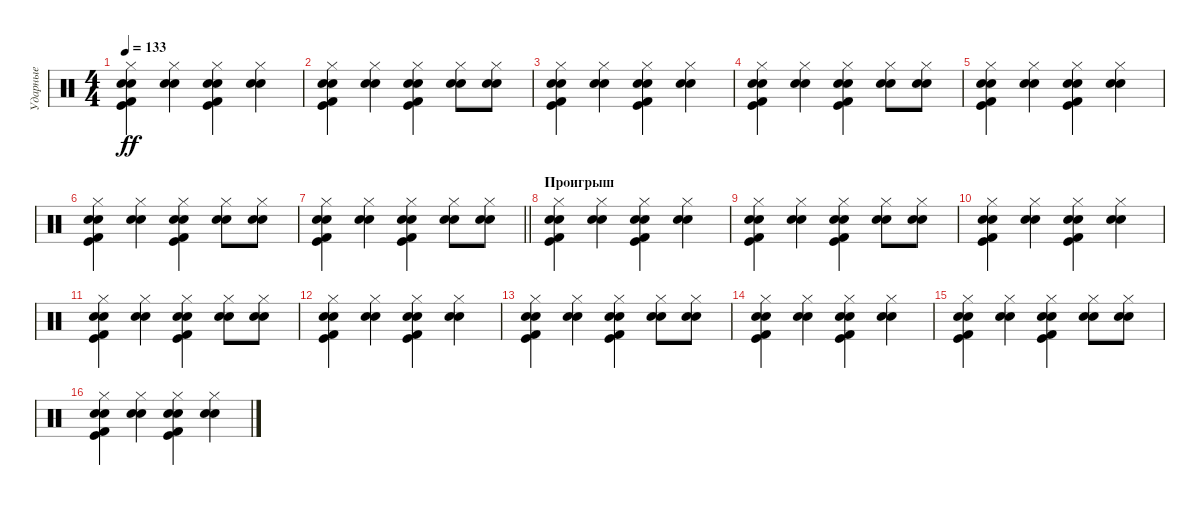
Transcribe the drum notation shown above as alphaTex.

\track ("Ударные" "Ударные") {instrument percussion}
\staff {score}
\articulation defaults
\ts (4 4)
\tempo 133
\clef neutral
\ks c
("Snare (hit) 2" "Kick (hit)" "Kick (hit) 2" "Snare (hit) 2" "Hi-Hat (closed)").4{dy ff} ("Electric Snare (hit)" "Electric Snare (hit)" "Hi-Hat (closed)").4 ("Snare (hit) 2" "Kick (hit)" "Kick (hit) 2" "Snare (hit) 2" "Hi-Hat (closed)").4 ("Electric Snare (hit)" "Electric Snare (hit)" "Hi-Hat (closed)").4 |
("Snare (hit) 2" "Kick (hit)" "Kick (hit) 2" "Snare (hit) 2" "Hi-Hat (closed)").4 ("Electric Snare (hit)" "Electric Snare (hit)" "Hi-Hat (closed)").4 ("Snare (hit) 2" "Kick (hit)" "Kick (hit) 2" "Snare (hit) 2" "Hi-Hat (closed)").4 ("Electric Snare (hit)" "Electric Snare (hit)" "Hi-Hat (closed)").8 ("Electric Snare (hit)" "Electric Snare (hit)" "Hi-Hat (closed)").8 |
("Snare (hit) 2" "Kick (hit)" "Kick (hit) 2" "Snare (hit) 2" "Hi-Hat (closed)").4 ("Electric Snare (hit)" "Electric Snare (hit)" "Hi-Hat (closed)").4 ("Snare (hit) 2" "Kick (hit)" "Kick (hit) 2" "Snare (hit) 2" "Hi-Hat (closed)").4 ("Electric Snare (hit)" "Electric Snare (hit)" "Hi-Hat (closed)").4 |
("Snare (hit) 2" "Kick (hit)" "Kick (hit) 2" "Snare (hit) 2" "Hi-Hat (closed)").4 ("Electric Snare (hit)" "Electric Snare (hit)" "Hi-Hat (closed)").4 ("Snare (hit) 2" "Kick (hit)" "Kick (hit) 2" "Snare (hit) 2" "Hi-Hat (closed)").4 ("Electric Snare (hit)" "Electric Snare (hit)" "Hi-Hat (closed)").8 ("Electric Snare (hit)" "Electric Snare (hit)" "Hi-Hat (closed)").8 |
("Snare (hit) 2" "Kick (hit)" "Kick (hit) 2" "Snare (hit) 2" "Hi-Hat (closed)").4 ("Electric Snare (hit)" "Electric Snare (hit)" "Hi-Hat (closed)").4 ("Snare (hit) 2" "Kick (hit)" "Kick (hit) 2" "Snare (hit) 2" "Hi-Hat (closed)").4 ("Electric Snare (hit)" "Electric Snare (hit)" "Hi-Hat (closed)").4 |
("Snare (hit) 2" "Kick (hit)" "Kick (hit) 2" "Snare (hit) 2" "Hi-Hat (closed)").4 ("Electric Snare (hit)" "Electric Snare (hit)" "Hi-Hat (closed)").4 ("Snare (hit) 2" "Kick (hit)" "Kick (hit) 2" "Snare (hit) 2" "Hi-Hat (closed)").4 ("Electric Snare (hit)" "Electric Snare (hit)" "Hi-Hat (closed)").8 ("Electric Snare (hit)" "Electric Snare (hit)" "Hi-Hat (closed)").8 |
\barLineRight lightlight
("Snare (hit) 2" "Kick (hit)" "Kick (hit) 2" "Snare (hit) 2" "Hi-Hat (closed)").4 ("Electric Snare (hit)" "Electric Snare (hit)" "Hi-Hat (closed)").4 ("Snare (hit) 2" "Kick (hit)" "Kick (hit) 2" "Snare (hit) 2" "Hi-Hat (closed)").4 ("Electric Snare (hit)" "Electric Snare (hit)" "Hi-Hat (closed)").8 ("Electric Snare (hit)" "Electric Snare (hit)" "Hi-Hat (closed)").8 |
\section ("" "Проигрыш")
("Snare (hit) 2" "Kick (hit)" "Kick (hit) 2" "Snare (hit) 2" "Hi-Hat (closed)").4 ("Electric Snare (hit)" "Electric Snare (hit)" "Hi-Hat (closed)").4 ("Snare (hit) 2" "Kick (hit)" "Kick (hit) 2" "Snare (hit) 2" "Hi-Hat (closed)").4 ("Electric Snare (hit)" "Electric Snare (hit)" "Hi-Hat (closed)").4 |
("Snare (hit) 2" "Kick (hit)" "Kick (hit) 2" "Snare (hit) 2" "Hi-Hat (closed)").4 ("Electric Snare (hit)" "Electric Snare (hit)" "Hi-Hat (closed)").4 ("Snare (hit) 2" "Kick (hit)" "Kick (hit) 2" "Snare (hit) 2" "Hi-Hat (closed)").4 ("Electric Snare (hit)" "Electric Snare (hit)" "Hi-Hat (closed)").8 ("Electric Snare (hit)" "Electric Snare (hit)" "Hi-Hat (closed)").8 |
("Snare (hit) 2" "Kick (hit)" "Kick (hit) 2" "Snare (hit) 2" "Hi-Hat (closed)").4 ("Electric Snare (hit)" "Electric Snare (hit)" "Hi-Hat (closed)").4 ("Snare (hit) 2" "Kick (hit)" "Kick (hit) 2" "Snare (hit) 2" "Hi-Hat (closed)").4 ("Electric Snare (hit)" "Electric Snare (hit)" "Hi-Hat (closed)").4 |
("Snare (hit) 2" "Kick (hit)" "Kick (hit) 2" "Snare (hit) 2" "Hi-Hat (closed)").4 ("Electric Snare (hit)" "Electric Snare (hit)" "Hi-Hat (closed)").4 ("Snare (hit) 2" "Kick (hit)" "Kick (hit) 2" "Snare (hit) 2" "Hi-Hat (closed)").4 ("Electric Snare (hit)" "Electric Snare (hit)" "Hi-Hat (closed)").8 ("Electric Snare (hit)" "Electric Snare (hit)" "Hi-Hat (closed)").8 |
("Snare (hit) 2" "Kick (hit)" "Kick (hit) 2" "Snare (hit) 2" "Hi-Hat (closed)").4 ("Electric Snare (hit)" "Electric Snare (hit)" "Hi-Hat (closed)").4 ("Snare (hit) 2" "Kick (hit)" "Kick (hit) 2" "Snare (hit) 2" "Hi-Hat (closed)").4 ("Electric Snare (hit)" "Electric Snare (hit)" "Hi-Hat (closed)").4 |
("Snare (hit) 2" "Kick (hit)" "Kick (hit) 2" "Snare (hit) 2" "Hi-Hat (closed)").4 ("Electric Snare (hit)" "Electric Snare (hit)" "Hi-Hat (closed)").4 ("Snare (hit) 2" "Kick (hit)" "Kick (hit) 2" "Snare (hit) 2" "Hi-Hat (closed)").4 ("Electric Snare (hit)" "Electric Snare (hit)" "Hi-Hat (closed)").8 ("Electric Snare (hit)" "Electric Snare (hit)" "Hi-Hat (closed)").8 |
("Snare (hit) 2" "Kick (hit)" "Kick (hit) 2" "Snare (hit) 2" "Hi-Hat (closed)").4 ("Electric Snare (hit)" "Electric Snare (hit)" "Hi-Hat (closed)").4 ("Snare (hit) 2" "Kick (hit)" "Kick (hit) 2" "Snare (hit) 2" "Hi-Hat (closed)").4 ("Electric Snare (hit)" "Electric Snare (hit)" "Hi-Hat (closed)").4 |
("Snare (hit) 2" "Kick (hit)" "Kick (hit) 2" "Snare (hit) 2" "Hi-Hat (closed)").4 ("Electric Snare (hit)" "Electric Snare (hit)" "Hi-Hat (closed)").4 ("Snare (hit) 2" "Kick (hit)" "Kick (hit) 2" "Snare (hit) 2" "Hi-Hat (closed)").4 ("Electric Snare (hit)" "Electric Snare (hit)" "Hi-Hat (closed)").8 ("Electric Snare (hit)" "Electric Snare (hit)" "Hi-Hat (closed)").8 |
("Snare (hit) 2" "Kick (hit)" "Kick (hit) 2" "Snare (hit) 2" "Hi-Hat (closed)").4 ("Electric Snare (hit)" "Electric Snare (hit)" "Hi-Hat (closed)").4 ("Snare (hit) 2" "Kick (hit)" "Kick (hit) 2" "Snare (hit) 2" "Hi-Hat (closed)").4 ("Electric Snare (hit)" "Electric Snare (hit)" "Hi-Hat (closed)").4
